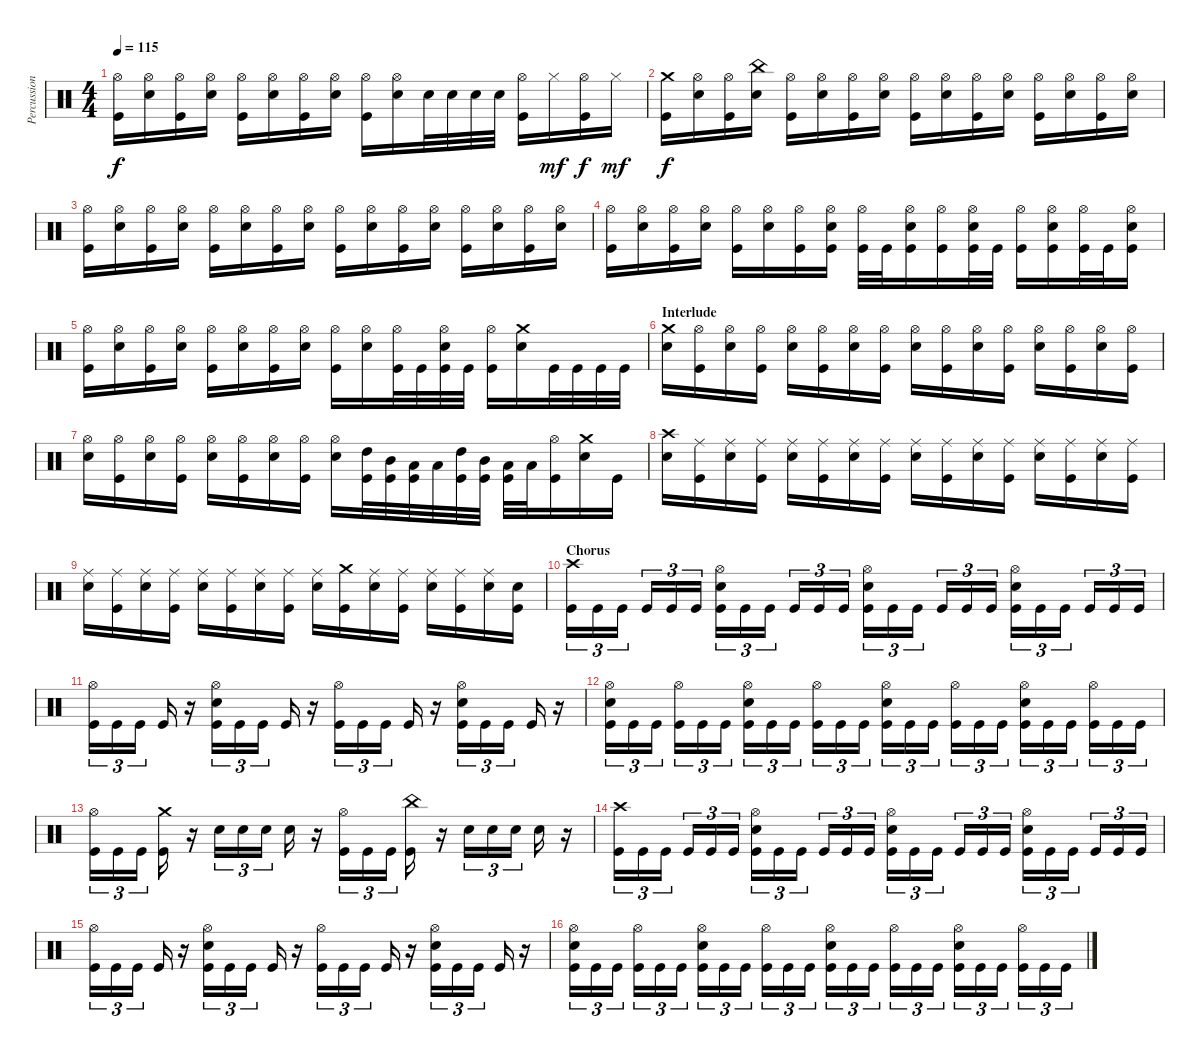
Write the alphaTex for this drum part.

\track ("Percussion" "Percussion") {instrument percussion}
\staff {score}
\articulation defaults
\ts (4 4)
\tempo 115
\clef neutral
\ks c
("Hi-Hat (open)" "Kick (hit)").16{dy f} ("Hi-Hat (open)" "Electric Snare (hit)").16 ("Hi-Hat (open)" "Kick (hit)").16 ("Hi-Hat (open)" "Electric Snare (hit)").16 ("Hi-Hat (open)" "Kick (hit)").16 ("Hi-Hat (open)" "Electric Snare (hit)").16 ("Hi-Hat (open)" "Kick (hit)").16 ("Hi-Hat (open)" "Electric Snare (hit)").16 ("Hi-Hat (open)" "Kick (hit)").16 ("Hi-Hat (open)" "Electric Snare (hit)").16 "Electric Snare (hit)".32 "Electric Snare (hit)".32 "Electric Snare (hit)".32 "Electric Snare (hit)".32 ("Hi-Hat (open)" "Kick (hit)").16 "Hi-Hat (closed)".16{dy mf} ("Hi-Hat (open)" "Kick (hit)").16{dy f} "Hi-Hat (closed)".16{dy mf} |
("Crash medium (hit)" "Kick (hit)").16{dy f} ("Hi-Hat (open)" "Electric Snare (hit)").16 ("Hi-Hat (open)" "Kick (hit)").16 ("China (hit)" "Electric Snare (hit)").16 ("Hi-Hat (open)" "Kick (hit)").16 ("Hi-Hat (open)" "Electric Snare (hit)").16 ("Hi-Hat (open)" "Kick (hit)").16 ("Hi-Hat (open)" "Electric Snare (hit)").16 ("Hi-Hat (open)" "Kick (hit)").16 ("Hi-Hat (open)" "Electric Snare (hit)").16 ("Hi-Hat (open)" "Kick (hit)").16 ("Hi-Hat (open)" "Electric Snare (hit)").16 ("Hi-Hat (open)" "Kick (hit)").16 ("Hi-Hat (open)" "Electric Snare (hit)").16 ("Hi-Hat (open)" "Kick (hit)").16 ("Hi-Hat (open)" "Electric Snare (hit)").16 |
("Hi-Hat (open)" "Kick (hit)").16 ("Hi-Hat (open)" "Electric Snare (hit)").16 ("Hi-Hat (open)" "Kick (hit)").16 ("Hi-Hat (open)" "Electric Snare (hit)").16 ("Hi-Hat (open)" "Kick (hit)").16 ("Hi-Hat (open)" "Electric Snare (hit)").16 ("Hi-Hat (open)" "Kick (hit)").16 ("Hi-Hat (open)" "Electric Snare (hit)").16 ("Hi-Hat (open)" "Kick (hit)").16 ("Hi-Hat (open)" "Electric Snare (hit)").16 ("Hi-Hat (open)" "Kick (hit)").16 ("Hi-Hat (open)" "Electric Snare (hit)").16 ("Hi-Hat (open)" "Kick (hit)").16 ("Hi-Hat (open)" "Electric Snare (hit)").16 ("Hi-Hat (open)" "Kick (hit)").16 ("Hi-Hat (open)" "Electric Snare (hit)").16 |
("Hi-Hat (open)" "Kick (hit)").16 ("Hi-Hat (open)" "Electric Snare (hit)").16 ("Hi-Hat (open)" "Kick (hit)").16 ("Hi-Hat (open)" "Electric Snare (hit)").16 ("Hi-Hat (open)" "Kick (hit)").16 ("Hi-Hat (open)" "Electric Snare (hit)").16 ("Hi-Hat (open)" "Kick (hit)").16 ("Hi-Hat (open)" "Electric Snare (hit)" "Kick (hit)").16 ("Hi-Hat (open)" "Kick (hit)").32 "Kick (hit)".32 ("Hi-Hat (open)" "Electric Snare (hit)" "Kick (hit)").16 ("Hi-Hat (open)" "Kick (hit)").16 ("Hi-Hat (open)" "Electric Snare (hit)" "Kick (hit)").32 "Kick (hit)".32 ("Hi-Hat (open)" "Kick (hit)").16 ("Hi-Hat (open)" "Electric Snare (hit)" "Kick (hit)").16 ("Hi-Hat (open)" "Kick (hit)").32 "Kick (hit)".32 ("Hi-Hat (open)" "Electric Snare (hit)" "Kick (hit)").16 |
("Hi-Hat (open)" "Kick (hit)").16 ("Hi-Hat (open)" "Electric Snare (hit)").16 ("Hi-Hat (open)" "Kick (hit)").16 ("Hi-Hat (open)" "Electric Snare (hit)").16 ("Hi-Hat (open)" "Kick (hit)").16 ("Hi-Hat (open)" "Electric Snare (hit)").16 ("Hi-Hat (open)" "Kick (hit)").16 ("Hi-Hat (open)" "Electric Snare (hit)").16 ("Hi-Hat (open)" "Kick (hit)").16 ("Hi-Hat (open)" "Electric Snare (hit)").16 ("Hi-Hat (open)" "Kick (hit)").32 "Kick (hit)".32 ("Hi-Hat (open)" "Electric Snare (hit)" "Kick (hit)").32 "Kick (hit)".32 ("Hi-Hat (open)" "Kick (hit)").16 ("Crash medium (hit)" "Electric Snare (hit)").16 "Kick (hit)".32 "Kick (hit)".32 "Kick (hit)".32 "Kick (hit)".32 |
\section ("" "Interlude")
("Crash medium (hit)" "Electric Snare (hit)").16 ("Hi-Hat (open)" "Kick (hit)").16 ("Hi-Hat (open)" "Electric Snare (hit)").16 ("Hi-Hat (open)" "Kick (hit)").16 ("Hi-Hat (open)" "Electric Snare (hit)").16 ("Hi-Hat (open)" "Kick (hit)").16 ("Hi-Hat (open)" "Electric Snare (hit)").16 ("Hi-Hat (open)" "Kick (hit)").16 ("Hi-Hat (open)" "Electric Snare (hit)").16 ("Hi-Hat (open)" "Kick (hit)").16 ("Hi-Hat (open)" "Electric Snare (hit)").16 ("Hi-Hat (open)" "Kick (hit)").16 ("Hi-Hat (open)" "Electric Snare (hit)").16 ("Hi-Hat (open)" "Kick (hit)").16 ("Hi-Hat (open)" "Electric Snare (hit)").16 ("Hi-Hat (open)" "Kick (hit)").16 |
("Hi-Hat (open)" "Electric Snare (hit)").16 ("Hi-Hat (open)" "Kick (hit)").16 ("Hi-Hat (open)" "Electric Snare (hit)").16 ("Hi-Hat (open)" "Kick (hit)").16 ("Hi-Hat (open)" "Electric Snare (hit)").16 ("Hi-Hat (open)" "Kick (hit)").16 ("Hi-Hat (open)" "Electric Snare (hit)").16 ("Hi-Hat (open)" "Kick (hit)").16 ("Hi-Hat (open)" "Electric Snare (hit)").16 ("High Tom (hit)" "Kick (hit)").32 ("Mid Tom (hit)" "Kick (hit)").32 ("Low Tom (hit)" "Kick (hit)").32 "Low Tom (hit)".32 ("High Tom (hit)" "Kick (hit)").32 ("Mid Tom (hit)" "Kick (hit)").32 ("Low Tom (hit)" "Kick (hit)").32 "Low Tom (hit)".32 ("Hi-Hat (open)" "Kick (hit)").16 ("Crash medium (hit)" "Electric Snare (hit)").16 "Kick (hit)".16 |
("Crash high (hit)" "Electric Snare (hit)").16 ("Ride (middle)" "Kick (hit)").16 ("Ride (middle)" "Electric Snare (hit)").16 ("Ride (middle)" "Kick (hit)").16 ("Ride (middle)" "Electric Snare (hit)").16 ("Ride (middle)" "Kick (hit)").16 ("Ride (middle)" "Electric Snare (hit)").16 ("Ride (middle)" "Kick (hit)").16 ("Ride (middle)" "Electric Snare (hit)").16 ("Ride (middle)" "Kick (hit)").16 ("Ride (middle)" "Electric Snare (hit)").16 ("Ride (middle)" "Kick (hit)").16 ("Ride (middle)" "Electric Snare (hit)").16 ("Ride (middle)" "Kick (hit)").16 ("Ride (middle)" "Electric Snare (hit)").16 ("Ride (middle)" "Kick (hit)").16 |
("Ride (middle)" "Electric Snare (hit)").16 ("Ride (middle)" "Kick (hit)").16 ("Ride (middle)" "Electric Snare (hit)").16 ("Ride (middle)" "Kick (hit)").16 ("Ride (middle)" "Electric Snare (hit)").16 ("Ride (middle)" "Kick (hit)").16 ("Ride (middle)" "Electric Snare (hit)").16 ("Ride (middle)" "Kick (hit)").16 ("Ride (middle)" "Electric Snare (hit)").16 ("Crash medium (hit)" "Kick (hit)").16 ("Ride (middle)" "Electric Snare (hit)").16 ("Ride (middle)" "Kick (hit)").16 ("Ride (middle)" "Electric Snare (hit)").16 ("Ride (middle)" "Kick (hit)").16 ("Ride (middle)" "Electric Snare (hit)").16 ("Electric Snare (hit)" "Kick (hit)").16 |
\section ("" "Chorus")
("Crash high (hit)" "Kick (hit)").16{tu (3 2)} "Kick (hit)".16{tu (3 2)} "Kick (hit)".16{tu (3 2)} "Kick (hit)".16{tu (3 2)} "Kick (hit)".16{tu (3 2)} "Kick (hit)".16{tu (3 2)} ("Hi-Hat (open)" "Electric Snare (hit)" "Kick (hit)").16{tu (3 2)} "Kick (hit)".16{tu (3 2)} "Kick (hit)".16{tu (3 2)} "Kick (hit)".16{tu (3 2)} "Kick (hit)".16{tu (3 2)} "Kick (hit)".16{tu (3 2)} ("Hi-Hat (open)" "Electric Snare (hit)" "Kick (hit)").16{tu (3 2)} "Kick (hit)".16{tu (3 2)} "Kick (hit)".16{tu (3 2)} "Kick (hit)".16{tu (3 2)} "Kick (hit)".16{tu (3 2)} "Kick (hit)".16{tu (3 2)} ("Hi-Hat (open)" "Electric Snare (hit)" "Kick (hit)").16{tu (3 2)} "Kick (hit)".16{tu (3 2)} "Kick (hit)".16{tu (3 2)} "Kick (hit)".16{tu (3 2)} "Kick (hit)".16{tu (3 2)} "Kick (hit)".16{tu (3 2)} |
("Hi-Hat (open)" "Kick (hit)").16{tu (3 2)} "Kick (hit)".16{tu (3 2)} "Kick (hit)".16{tu (3 2)} "Kick (hit)".16 r.16 ("Hi-Hat (open)" "Electric Snare (hit)" "Kick (hit)").16{tu (3 2)} "Kick (hit)".16{tu (3 2)} "Kick (hit)".16{tu (3 2)} "Kick (hit)".16 r.16 ("Hi-Hat (open)" "Kick (hit)").16{tu (3 2)} "Kick (hit)".16{tu (3 2)} "Kick (hit)".16{tu (3 2)} "Kick (hit)".16 r.16 ("Hi-Hat (open)" "Electric Snare (hit)" "Kick (hit)").16{tu (3 2)} "Kick (hit)".16{tu (3 2)} "Kick (hit)".16{tu (3 2)} "Kick (hit)".16 r.16 |
("Hi-Hat (open)" "Electric Snare (hit)" "Kick (hit)").16{tu (3 2)} "Kick (hit)".16{tu (3 2)} "Kick (hit)".16{tu (3 2)} ("Hi-Hat (open)" "Kick (hit)").16{tu (3 2)} "Kick (hit)".16{tu (3 2)} "Kick (hit)".16{tu (3 2)} ("Hi-Hat (open)" "Electric Snare (hit)" "Kick (hit)").16{tu (3 2)} "Kick (hit)".16{tu (3 2)} "Kick (hit)".16{tu (3 2)} ("Hi-Hat (open)" "Kick (hit)").16{tu (3 2)} "Kick (hit)".16{tu (3 2)} "Kick (hit)".16{tu (3 2)} ("Hi-Hat (open)" "Electric Snare (hit)" "Kick (hit)").16{tu (3 2)} "Kick (hit)".16{tu (3 2)} "Kick (hit)".16{tu (3 2)} ("Hi-Hat (open)" "Kick (hit)").16{tu (3 2)} "Kick (hit)".16{tu (3 2)} "Kick (hit)".16{tu (3 2)} ("Hi-Hat (open)" "Electric Snare (hit)" "Kick (hit)").16{tu (3 2)} "Kick (hit)".16{tu (3 2)} "Kick (hit)".16{tu (3 2)} ("Hi-Hat (open)" "Kick (hit)").16{tu (3 2)} "Kick (hit)".16{tu (3 2)} "Kick (hit)".16{tu (3 2)} |
("Hi-Hat (open)" "Kick (hit)").16{tu (3 2)} "Kick (hit)".16{tu (3 2)} "Kick (hit)".16{tu (3 2)} ("Crash medium (hit)" "Kick (hit)").16 r.16 "Electric Snare (hit)".16{tu (3 2)} "Electric Snare (hit)".16{tu (3 2)} "Electric Snare (hit)".16{tu (3 2)} "Electric Snare (hit)".16 r.16 ("Hi-Hat (open)" "Kick (hit)").16{tu (3 2)} "Kick (hit)".16{tu (3 2)} "Kick (hit)".16{tu (3 2)} ("China (hit)" "Kick (hit)").16 r.16 "Electric Snare (hit)".16{tu (3 2)} "Electric Snare (hit)".16{tu (3 2)} "Electric Snare (hit)".16{tu (3 2)} "Electric Snare (hit)".16 r.16 |
("Crash high (hit)" "Kick (hit)").16{tu (3 2)} "Kick (hit)".16{tu (3 2)} "Kick (hit)".16{tu (3 2)} "Kick (hit)".16{tu (3 2)} "Kick (hit)".16{tu (3 2)} "Kick (hit)".16{tu (3 2)} ("Hi-Hat (open)" "Electric Snare (hit)" "Kick (hit)").16{tu (3 2)} "Kick (hit)".16{tu (3 2)} "Kick (hit)".16{tu (3 2)} "Kick (hit)".16{tu (3 2)} "Kick (hit)".16{tu (3 2)} "Kick (hit)".16{tu (3 2)} ("Hi-Hat (open)" "Electric Snare (hit)" "Kick (hit)").16{tu (3 2)} "Kick (hit)".16{tu (3 2)} "Kick (hit)".16{tu (3 2)} "Kick (hit)".16{tu (3 2)} "Kick (hit)".16{tu (3 2)} "Kick (hit)".16{tu (3 2)} ("Hi-Hat (open)" "Electric Snare (hit)" "Kick (hit)").16{tu (3 2)} "Kick (hit)".16{tu (3 2)} "Kick (hit)".16{tu (3 2)} "Kick (hit)".16{tu (3 2)} "Kick (hit)".16{tu (3 2)} "Kick (hit)".16{tu (3 2)} |
("Hi-Hat (open)" "Kick (hit)").16{tu (3 2)} "Kick (hit)".16{tu (3 2)} "Kick (hit)".16{tu (3 2)} "Kick (hit)".16 r.16 ("Hi-Hat (open)" "Electric Snare (hit)" "Kick (hit)").16{tu (3 2)} "Kick (hit)".16{tu (3 2)} "Kick (hit)".16{tu (3 2)} "Kick (hit)".16 r.16 ("Hi-Hat (open)" "Kick (hit)").16{tu (3 2)} "Kick (hit)".16{tu (3 2)} "Kick (hit)".16{tu (3 2)} "Kick (hit)".16 r.16 ("Hi-Hat (open)" "Electric Snare (hit)" "Kick (hit)").16{tu (3 2)} "Kick (hit)".16{tu (3 2)} "Kick (hit)".16{tu (3 2)} "Kick (hit)".16 r.16 |
("Hi-Hat (open)" "Electric Snare (hit)" "Kick (hit)").16{tu (3 2)} "Kick (hit)".16{tu (3 2)} "Kick (hit)".16{tu (3 2)} ("Hi-Hat (open)" "Kick (hit)").16{tu (3 2)} "Kick (hit)".16{tu (3 2)} "Kick (hit)".16{tu (3 2)} ("Hi-Hat (open)" "Electric Snare (hit)" "Kick (hit)").16{tu (3 2)} "Kick (hit)".16{tu (3 2)} "Kick (hit)".16{tu (3 2)} ("Hi-Hat (open)" "Kick (hit)").16{tu (3 2)} "Kick (hit)".16{tu (3 2)} "Kick (hit)".16{tu (3 2)} ("Hi-Hat (open)" "Electric Snare (hit)" "Kick (hit)").16{tu (3 2)} "Kick (hit)".16{tu (3 2)} "Kick (hit)".16{tu (3 2)} ("Hi-Hat (open)" "Kick (hit)").16{tu (3 2)} "Kick (hit)".16{tu (3 2)} "Kick (hit)".16{tu (3 2)} ("Hi-Hat (open)" "Electric Snare (hit)" "Kick (hit)").16{tu (3 2)} "Kick (hit)".16{tu (3 2)} "Kick (hit)".16{tu (3 2)} ("Hi-Hat (open)" "Kick (hit)").16{tu (3 2)} "Kick (hit)".16{tu (3 2)} "Kick (hit)".16{tu (3 2)}
